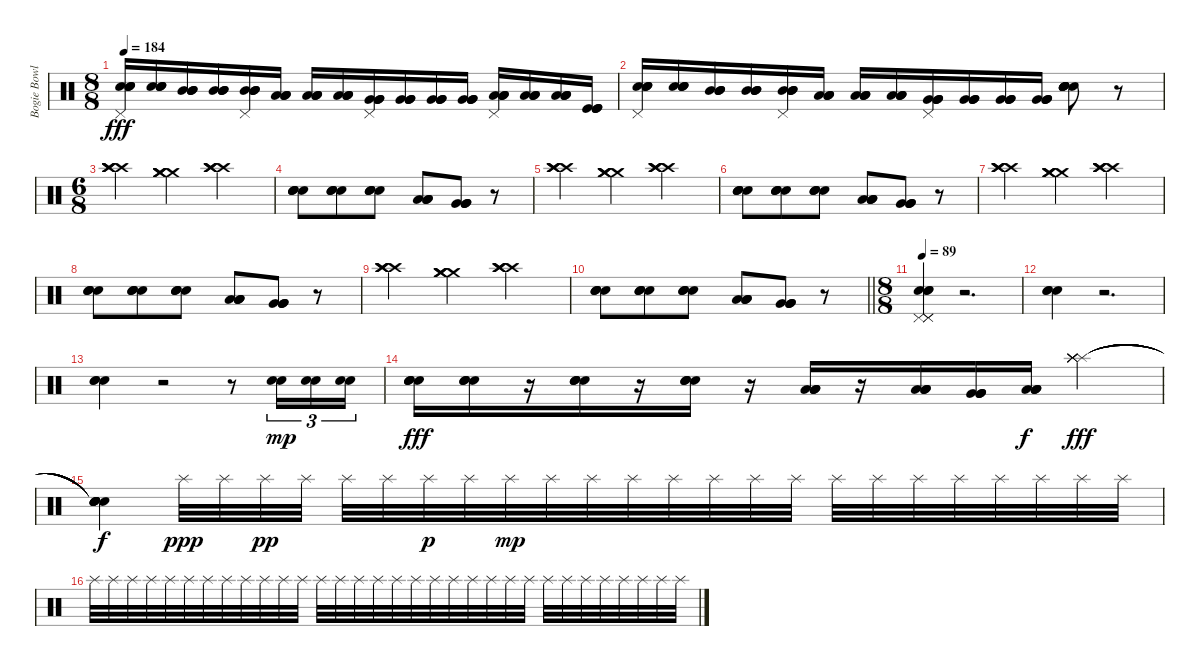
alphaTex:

\track ("Bogie Bowles Drums" "Bogie Bowl") {instrument percussion}
\staff {score}
\articulation defaults
\ts (8 8)
\tempo 184
\clef neutral
\ks c
("Pedal Hi-Hat (hit)" "Snare (hit) 2" "Snare (hit) 2" "Snare (hit) 2" "Snare (hit) 2").16{dy fff} ("Snare (hit) 2" "Snare (hit) 2" "Snare (hit) 2" "Snare (hit) 2").16 ("Mid Tom (hit)" "Mid Tom (hit)" "Mid Tom (hit)" "Mid Tom (hit)").16 ("Mid Tom (hit)" "Mid Tom (hit)" "Mid Tom (hit)" "Mid Tom (hit)").16 ("Pedal Hi-Hat (hit)" "Mid Tom (hit)" "Mid Tom (hit)" "Mid Tom (hit)" "Mid Tom (hit)").16 ("Low Tom (hit)" "Low Tom (hit)" "Low Tom (hit)" "Low Tom (hit)").16 ("Low Tom (hit)" "Low Tom (hit)" "Low Tom (hit)" "Low Tom (hit)").16 ("Low Tom (hit)" "Low Tom (hit)" "Low Tom (hit)" "Low Tom (hit)").16 ("Pedal Hi-Hat (hit)" "Very Low Tom (hit)" "Very Low Tom (hit)" "Very Low Tom (hit)" "Very Low Tom (hit)").16 ("Very Low Tom (hit)" "Very Low Tom (hit)" "Very Low Tom (hit)" "Very Low Tom (hit)").16 ("Very Low Tom (hit)" "Very Low Tom (hit)" "Very Low Tom (hit)" "Very Low Tom (hit)").16 ("Very Low Tom (hit)" "Very Low Tom (hit)" "Very Low Tom (hit)" "Very Low Tom (hit)").16 ("Pedal Hi-Hat (hit)" "Low Floor Tom (hit)" "Low Floor Tom (hit)" "Low Floor Tom (hit)" "Low Floor Tom (hit)").16 ("Low Floor Tom (hit)" "Low Floor Tom (hit)" "Low Floor Tom (hit)" "Low Floor Tom (hit)").16 ("Low Floor Tom (hit)" "Low Floor Tom (hit)" "Low Floor Tom (hit)" "Low Floor Tom (hit)").16 ("Kick (hit)" "Kick (hit)" "Kick (hit)" "Kick (hit)").16 |
("Pedal Hi-Hat (hit)" "Snare (hit) 2" "Snare (hit) 2" "Snare (hit) 2" "Snare (hit) 2").16 ("Snare (hit) 2" "Snare (hit) 2" "Snare (hit) 2" "Snare (hit) 2").16 ("Mid Tom (hit)" "Mid Tom (hit)" "Mid Tom (hit)" "Mid Tom (hit)").16 ("Mid Tom (hit)" "Mid Tom (hit)" "Mid Tom (hit)" "Mid Tom (hit)").16 ("Pedal Hi-Hat (hit)" "Mid Tom (hit)" "Mid Tom (hit)" "Mid Tom (hit)" "Mid Tom (hit)").16 ("Low Tom (hit)" "Low Tom (hit)" "Low Tom (hit)" "Low Tom (hit)").16 ("Low Tom (hit)" "Low Tom (hit)" "Low Tom (hit)" "Low Tom (hit)").16 ("Low Tom (hit)" "Low Tom (hit)" "Low Tom (hit)" "Low Tom (hit)").16 ("Pedal Hi-Hat (hit)" "Very Low Tom (hit)" "Very Low Tom (hit)" "Very Low Tom (hit)" "Very Low Tom (hit)").16 ("Very Low Tom (hit)" "Very Low Tom (hit)" "Very Low Tom (hit)" "Very Low Tom (hit)").16 ("Very Low Tom (hit)" "Very Low Tom (hit)" "Very Low Tom (hit)" "Very Low Tom (hit)").16 ("Very Low Tom (hit)" "Very Low Tom (hit)" "Very Low Tom (hit)" "Very Low Tom (hit)").16 ("Snare (hit) 2" "Snare (hit) 2" "Snare (hit) 2" "Snare (hit) 2" "Snare (hit) 2" "Snare (hit) 2").8 r.8 |
\ts (6 8)
("Crash high (hit)" "Crash high (hit)" "Crash high (hit)" "Crash high (hit)").4 ("Crash medium (hit)" "Crash medium (hit)" "Crash medium (hit)" "Crash medium (hit)").4 ("Crash high (hit)" "Crash high (hit)" "Crash high (hit)" "Crash high (hit)").4 |
("Snare (hit) 2" "Snare (hit) 2" "Snare (hit) 2" "Snare (hit) 2").8 ("Snare (hit) 2" "Snare (hit) 2" "Snare (hit) 2" "Snare (hit) 2").8 ("Snare (hit) 2" "Snare (hit) 2" "Snare (hit) 2" "Snare (hit) 2").8 ("Low Tom (hit)" "Low Tom (hit)" "Low Tom (hit)" "Low Tom (hit)").8 ("Very Low Tom (hit)" "Very Low Tom (hit)" "Very Low Tom (hit)" "Very Low Tom (hit)").8 r.8 |
("Crash high (hit)" "Crash high (hit)" "Crash high (hit)" "Crash high (hit)").4 ("Crash medium (hit)" "Crash medium (hit)" "Crash medium (hit)" "Crash medium (hit)").4 ("Crash high (hit)" "Crash high (hit)" "Crash high (hit)" "Crash high (hit)").4 |
("Snare (hit) 2" "Snare (hit) 2" "Snare (hit) 2" "Snare (hit) 2").8 ("Snare (hit) 2" "Snare (hit) 2" "Snare (hit) 2" "Snare (hit) 2").8 ("Snare (hit) 2" "Snare (hit) 2" "Snare (hit) 2" "Snare (hit) 2").8 ("Low Tom (hit)" "Low Tom (hit)" "Low Tom (hit)" "Low Tom (hit)").8 ("Very Low Tom (hit)" "Very Low Tom (hit)" "Very Low Tom (hit)" "Very Low Tom (hit)").8 r.8 |
("Crash high (hit)" "Crash high (hit)" "Crash high (hit)" "Crash high (hit)").4 ("Crash medium (hit)" "Crash medium (hit)" "Crash medium (hit)" "Crash medium (hit)").4 ("Crash high (hit)" "Crash high (hit)" "Crash high (hit)" "Crash high (hit)").4 |
("Snare (hit) 2" "Snare (hit) 2" "Snare (hit) 2" "Snare (hit) 2").8 ("Snare (hit) 2" "Snare (hit) 2" "Snare (hit) 2" "Snare (hit) 2").8 ("Snare (hit) 2" "Snare (hit) 2" "Snare (hit) 2" "Snare (hit) 2").8 ("Low Tom (hit)" "Low Tom (hit)" "Low Tom (hit)" "Low Tom (hit)").8 ("Very Low Tom (hit)" "Very Low Tom (hit)" "Very Low Tom (hit)" "Very Low Tom (hit)").8 r.8 |
("Crash high (hit)" "Crash high (hit)" "Crash high (hit)" "Crash high (hit)").4 ("Crash medium (hit)" "Crash medium (hit)" "Crash medium (hit)" "Crash medium (hit)").4 ("Crash high (hit)" "Crash high (hit)" "Crash high (hit)" "Crash high (hit)").4 |
\barLineRight lightlight
("Snare (hit) 2" "Snare (hit) 2" "Snare (hit) 2" "Snare (hit) 2").8 ("Snare (hit) 2" "Snare (hit) 2" "Snare (hit) 2" "Snare (hit) 2").8 ("Snare (hit) 2" "Snare (hit) 2" "Snare (hit) 2" "Snare (hit) 2").8 ("Low Tom (hit)" "Low Tom (hit)" "Low Tom (hit)" "Low Tom (hit)").8 ("Very Low Tom (hit)" "Very Low Tom (hit)" "Very Low Tom (hit)" "Very Low Tom (hit)").8 r.8 |
\ts (8 8)
\tempo 89
("Snare (hit) 2" "Snare (hit) 2" "Snare (hit) 2" "Pedal Hi-Hat (hit)" "Pedal Hi-Hat (hit)" "Pedal Hi-Hat (hit)").4 r.2{d} |
("Snare (hit) 2" "Snare (hit) 2" "Snare (hit) 2").4 r.2{d} |
("Snare (hit) 2" "Snare (hit) 2" "Snare (hit) 2").4 r.2 r.8 ("Snare (hit) 2" "Snare (hit) 2").16{tu (3 2) dy mp} ("Snare (hit) 2" "Snare (hit) 2").16{tu (3 2)} ("Snare (hit) 2" "Snare (hit) 2").16{tu (3 2)} |
("Snare (hit) 2" "Snare (hit) 2" "Snare (hit) 2" "Snare (hit) 2").16{dy fff} ("Snare (hit) 2" "Snare (hit) 2" "Snare (hit) 2" "Snare (hit) 2").16 r.16 ("Snare (hit) 2" "Snare (hit) 2" "Snare (hit) 2" "Snare (hit) 2").16 r.16 ("Snare (hit) 2" "Snare (hit) 2" "Snare (hit) 2" "Snare (hit) 2").16 r.16 ("Low Tom (hit)" "Low Tom (hit)" "Low Tom (hit)" "Low Tom (hit)").16 r.16 ("Low Tom (hit)" "Low Tom (hit)" "Low Tom (hit)" "Low Tom (hit)").16 ("Very Low Tom (hit)" "Very Low Tom (hit)" "Very Low Tom (hit)" "Very Low Tom (hit)").16 ("Low Floor Tom (hit)" "Low Floor Tom (hit)" "Low Floor Tom (hit)" "Low Floor Tom (hit)").16{dy f} ("Splash (hit)" "Splash (hit)" "Splash (hit)" "Splash (hit)" "Splash (hit)" "Splash (hit)").4{dy fff} |
("Snare (hit)"{t} "Snare (hit)"{t} "Snare (hit)"{t} "Snare (hit)"{t} "Snare (hit)"{t} "Snare (hit)"{t}).4{dy f} "Splash (hit)".32{dy ppp} "Splash (hit)".32 "Splash (hit)".32{dy pp} "Splash (hit)".32 "Splash (hit)".32 "Splash (hit)".32 "Splash (hit)".32{dy p} "Splash (hit)".32 "Splash (hit)".32{dy mp} "Splash (hit)".32 "Splash (hit)".32 "Splash (hit)".32 "Splash (hit)".32 "Splash (hit)".32 "Splash (hit)".32 "Splash (hit)".32 "Splash (hit)".32 "Splash (hit)".32 "Splash (hit)".32 "Splash (hit)".32 "Splash (hit)".32 "Splash (hit)".32 "Splash (hit)".32 "Splash (hit)".32 |
"Splash (hit)".32 "Splash (hit)".32 "Splash (hit)".32 "Splash (hit)".32 "Splash (hit)".32 "Splash (hit)".32 "Splash (hit)".32 "Splash (hit)".32 "Splash (hit)".32 "Splash (hit)".32 "Splash (hit)".32 "Splash (hit)".32 "Splash (hit)".32 "Splash (hit)".32 "Splash (hit)".32 "Splash (hit)".32 "Splash (hit)".32 "Splash (hit)".32 "Splash (hit)".32 "Splash (hit)".32 "Splash (hit)".32 "Splash (hit)".32 "Splash (hit)".32 "Splash (hit)".32 "Splash (hit)".32 "Splash (hit)".32 "Splash (hit)".32 "Splash (hit)".32 "Splash (hit)".32 "Splash (hit)".32 "Splash (hit)".32 "Splash (hit)".32
